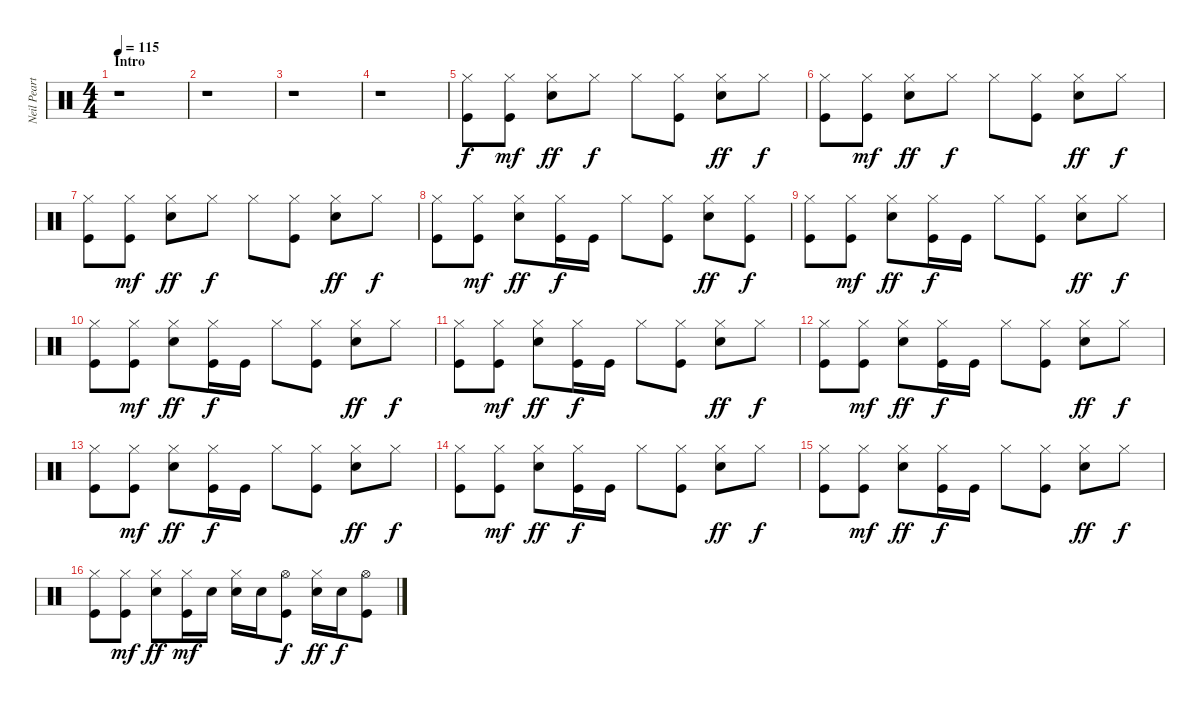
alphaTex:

\track ("Neil Peart - Drums" "Neil Peart") {instrument percussion}
\staff {score}
\articulation defaults
\ts (4 4)
\section ("" "Intro")
\tempo 115
\clef neutral
\ks c
r.1{dy f} |
r.1 |
r.1 |
r.1{volume 6} |
("Hi-Hat (closed)" "Kick (hit)").8{volume 13} ("Hi-Hat (closed)" "Kick (hit)").8{dy mf} ("Hi-Hat (closed)" "Electric Snare (hit)").8{dy ff} "Hi-Hat (closed)".8{dy f} "Hi-Hat (closed)".8 ("Hi-Hat (closed)" "Kick (hit)").8 ("Hi-Hat (closed)" "Electric Snare (hit)").8{dy ff} "Hi-Hat (closed)".8{dy f} |
("Hi-Hat (closed)" "Kick (hit)").8 ("Hi-Hat (closed)" "Kick (hit)").8{dy mf} ("Hi-Hat (closed)" "Electric Snare (hit)").8{dy ff} "Hi-Hat (closed)".8{dy f} "Hi-Hat (closed)".8 ("Hi-Hat (closed)" "Kick (hit)").8 ("Hi-Hat (closed)" "Electric Snare (hit)").8{dy ff} "Hi-Hat (closed)".8{dy f} |
("Hi-Hat (closed)" "Kick (hit)").8 ("Hi-Hat (closed)" "Kick (hit)").8{dy mf} ("Hi-Hat (closed)" "Electric Snare (hit)").8{dy ff} "Hi-Hat (closed)".8{dy f} "Hi-Hat (closed)".8 ("Hi-Hat (closed)" "Kick (hit)").8 ("Hi-Hat (closed)" "Electric Snare (hit)").8{dy ff} "Hi-Hat (closed)".8{dy f} |
("Hi-Hat (closed)" "Kick (hit)").8 ("Hi-Hat (closed)" "Kick (hit)").8{dy mf} ("Hi-Hat (closed)" "Electric Snare (hit)").8{dy ff} ("Hi-Hat (closed)" "Kick (hit)").16{dy f} "Kick (hit)".16 "Hi-Hat (closed)".8 ("Hi-Hat (closed)" "Kick (hit)").8 ("Hi-Hat (closed)" "Electric Snare (hit)").8{dy ff} ("Hi-Hat (closed)" "Kick (hit)").8{dy f} |
("Hi-Hat (closed)" "Kick (hit)").8 ("Hi-Hat (closed)" "Kick (hit)").8{dy mf} ("Hi-Hat (closed)" "Electric Snare (hit)").8{dy ff} ("Hi-Hat (closed)" "Kick (hit)").16{dy f} "Kick (hit)".16 "Hi-Hat (closed)".8 ("Hi-Hat (closed)" "Kick (hit)").8 ("Hi-Hat (closed)" "Electric Snare (hit)").8{dy ff} "Hi-Hat (closed)".8{dy f} |
("Hi-Hat (closed)" "Kick (hit)").8 ("Hi-Hat (closed)" "Kick (hit)").8{dy mf} ("Hi-Hat (closed)" "Electric Snare (hit)").8{dy ff} ("Hi-Hat (closed)" "Kick (hit)").16{dy f} "Kick (hit)".16 "Hi-Hat (closed)".8 ("Hi-Hat (closed)" "Kick (hit)").8 ("Hi-Hat (closed)" "Electric Snare (hit)").8{dy ff} "Hi-Hat (closed)".8{dy f} |
("Hi-Hat (closed)" "Kick (hit)").8 ("Hi-Hat (closed)" "Kick (hit)").8{dy mf} ("Hi-Hat (closed)" "Electric Snare (hit)").8{dy ff} ("Hi-Hat (closed)" "Kick (hit)").16{dy f} "Kick (hit)".16 "Hi-Hat (closed)".8 ("Hi-Hat (closed)" "Kick (hit)").8 ("Hi-Hat (closed)" "Electric Snare (hit)").8{dy ff} "Hi-Hat (closed)".8{dy f} |
("Hi-Hat (closed)" "Kick (hit)").8 ("Hi-Hat (closed)" "Kick (hit)").8{dy mf} ("Hi-Hat (closed)" "Electric Snare (hit)").8{dy ff} ("Hi-Hat (closed)" "Kick (hit)").16{dy f} "Kick (hit)".16 "Hi-Hat (closed)".8 ("Hi-Hat (closed)" "Kick (hit)").8 ("Hi-Hat (closed)" "Electric Snare (hit)").8{dy ff} "Hi-Hat (closed)".8{dy f} |
("Hi-Hat (closed)" "Kick (hit)").8 ("Hi-Hat (closed)" "Kick (hit)").8{dy mf} ("Hi-Hat (closed)" "Electric Snare (hit)").8{dy ff} ("Hi-Hat (closed)" "Kick (hit)").16{dy f} "Kick (hit)".16 "Hi-Hat (closed)".8 ("Hi-Hat (closed)" "Kick (hit)").8 ("Hi-Hat (closed)" "Electric Snare (hit)").8{dy ff} "Hi-Hat (closed)".8{dy f} |
("Hi-Hat (closed)" "Kick (hit)").8 ("Hi-Hat (closed)" "Kick (hit)").8{dy mf} ("Hi-Hat (closed)" "Electric Snare (hit)").8{dy ff} ("Hi-Hat (closed)" "Kick (hit)").16{dy f} "Kick (hit)".16 "Hi-Hat (closed)".8 ("Hi-Hat (closed)" "Kick (hit)").8 ("Hi-Hat (closed)" "Electric Snare (hit)").8{dy ff} "Hi-Hat (closed)".8{dy f} |
("Hi-Hat (closed)" "Kick (hit)").8 ("Hi-Hat (closed)" "Kick (hit)").8{dy mf} ("Hi-Hat (closed)" "Electric Snare (hit)").8{dy ff} ("Hi-Hat (closed)" "Kick (hit)").16{dy f} "Kick (hit)".16 "Hi-Hat (closed)".8 ("Hi-Hat (closed)" "Kick (hit)").8 ("Hi-Hat (closed)" "Electric Snare (hit)").8{dy ff} "Hi-Hat (closed)".8{dy f} |
("Hi-Hat (closed)" "Kick (hit)").8 ("Hi-Hat (closed)" "Kick (hit)").8{dy mf} ("Hi-Hat (closed)" "Electric Snare (hit)").8{dy ff} ("Hi-Hat (closed)" "Kick (hit)").16{dy mf} "Electric Snare (hit)".16 ("Hi-Hat (closed)" "Electric Snare (hit)").16 "Electric Snare (hit)".16 ("Hi-Hat (open)" "Kick (hit)").8{dy f} ("Hi-Hat (closed)" "Electric Snare (hit)").16{dy ff} "Electric Snare (hit)".16{dy f} ("Hi-Hat (open)" "Kick (hit)").8
